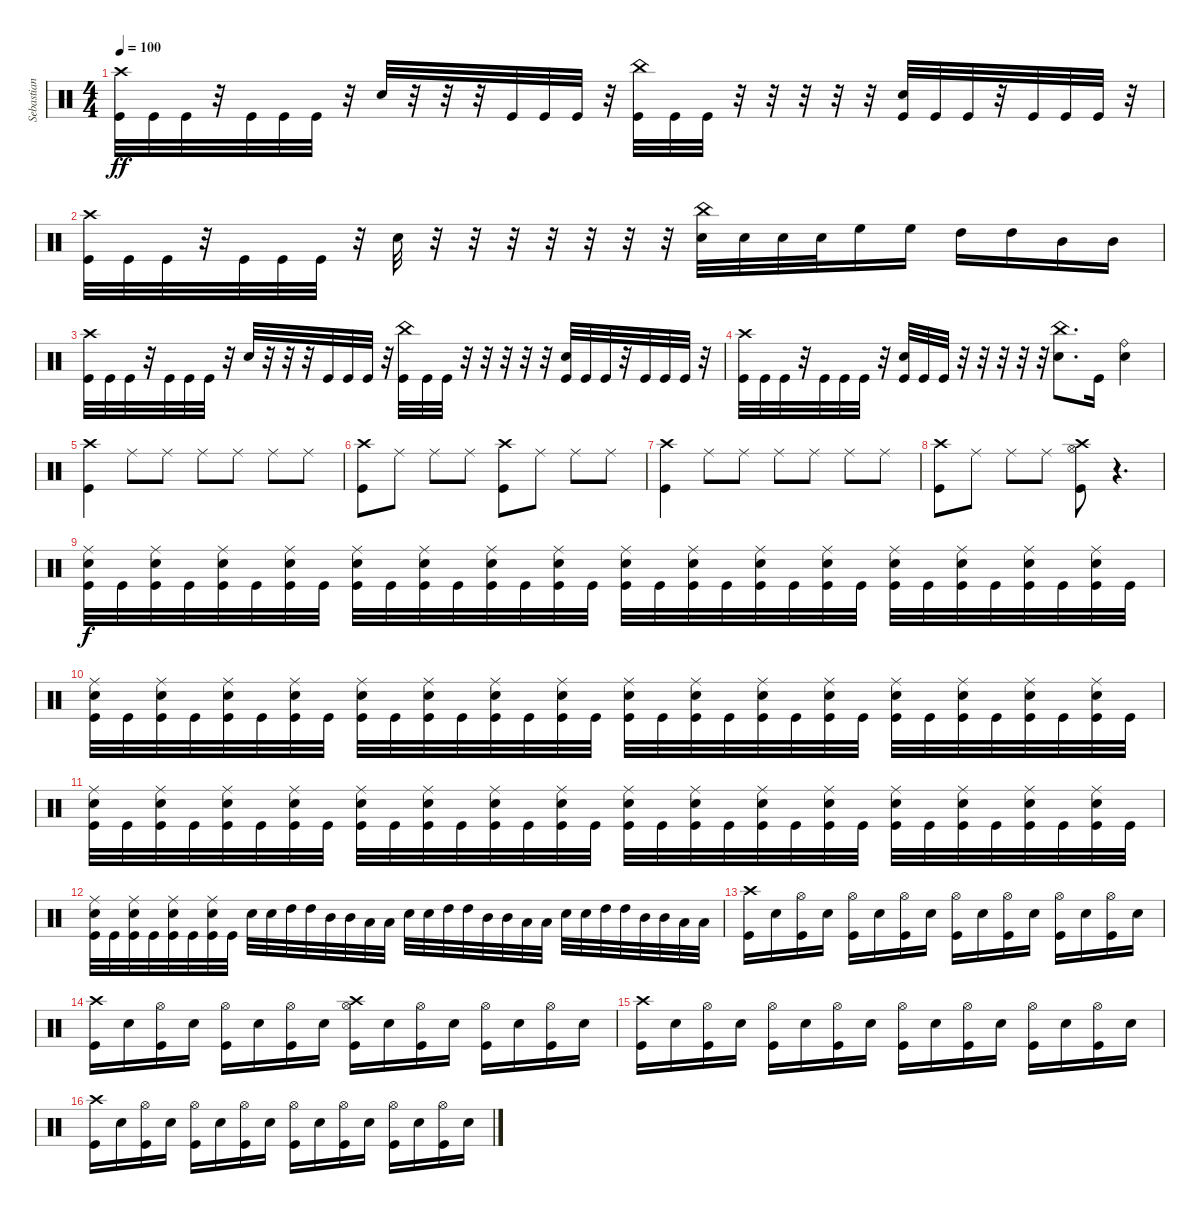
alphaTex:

\track ("Sebastian Heldt" "Sebastian ") {instrument percussion bank 177}
\staff {score}
\articulation defaults
\ts (4 4)
\tempo 100
\clef neutral
\ks c
("Kick (hit)" "Crash high (hit)").32{dy ff} "Kick (hit)".32 "Kick (hit)".32 r.32 "Kick (hit)".32 "Kick (hit)".32 "Kick (hit)".32 r.32 "Snare (hit) 2".32 r.32 r.32 r.32 "Kick (hit)".32 "Kick (hit)".32 "Kick (hit)".32 r.32 ("Kick (hit)" "China (hit)").32 "Kick (hit)".32 "Kick (hit)".32 r.32 r.32 r.32 r.32 r.32 ("Kick (hit)" "Snare (hit) 2").32 "Kick (hit)".32 "Kick (hit)".32 r.32 "Kick (hit)".32 "Kick (hit)".32 "Kick (hit)".32 r.32 |
("Kick (hit)" "Crash high (hit)").32 "Kick (hit)".32 "Kick (hit)".32 r.32 "Kick (hit)".32 "Kick (hit)".32 "Kick (hit)".32 r.32 "Snare (hit) 2".32 r.32 r.32 r.32 r.32 r.32 r.32 r.32 ("Snare (hit) 2" "China (hit)").32 "Snare (hit) 2".32 "Snare (hit) 2".32 "Snare (hit) 2".32 "High Floor Tom (hit)".16 "High Floor Tom (hit)".16 "High Tom (hit)".16 "High Tom (hit)".16 "Mid Tom (hit)".16 "Mid Tom (hit)".16 |
("Kick (hit)" "Crash high (hit)").32 "Kick (hit)".32 "Kick (hit)".32 r.32 "Kick (hit)".32 "Kick (hit)".32 "Kick (hit)".32 r.32 "Snare (hit) 2".32 r.32 r.32 r.32 "Kick (hit)".32 "Kick (hit)".32 "Kick (hit)".32 r.32 ("Kick (hit)" "China (hit)").32 "Kick (hit)".32 "Kick (hit)".32 r.32 r.32 r.32 r.32 r.32 ("Kick (hit)" "Snare (hit) 2").32 "Kick (hit)".32 "Kick (hit)".32 r.32 "Kick (hit)".32 "Kick (hit)".32 "Kick (hit)".32 r.32 |
("Kick (hit)" "Crash high (hit)").32 "Kick (hit)".32 "Kick (hit)".32 r.32 "Kick (hit)".32 "Kick (hit)".32 "Kick (hit)".32 r.32 ("Kick (hit)" "Snare (hit) 2").32 "Kick (hit)".32 "Kick (hit)".32 r.32 r.32 r.32 r.32 r.32 ("Snare (hit) 2" "China (hit)").8{d} "Kick (hit)".16 ("Ride (bell)" "Snare (hit) 2").4 |
("Kick (hit)" "Crash high (hit)").4 "Ride (middle)".8 "Ride (middle)".8 "Ride (middle)".8 "Ride (middle)".8 "Ride (middle)".8 "Ride (middle)".8 |
("Kick (hit)" "Crash high (hit)").8 "Ride (middle)".8 "Ride (middle)".8 "Ride (middle)".8 ("Kick (hit)" "Crash high (hit)").8 "Ride (middle)".8 "Ride (middle)".8 "Ride (middle)".8 |
("Kick (hit)" "Crash high (hit)").4 "Ride (middle)".8 "Ride (middle)".8 "Ride (middle)".8 "Ride (middle)".8 "Ride (middle)".8 "Ride (middle)".8 |
("Kick (hit)" "Crash high (hit)").8 "Ride (middle)".8 "Ride (middle)".8 "Ride (middle)".8 ("Kick (hit)" "Hi-Hat (open)" "Crash high (hit)").8 r.4{d} |
("Snare (hit) 2" "Kick (hit)" "Ride (middle)").32{dy f} "Kick (hit)".32 ("Snare (hit) 2" "Kick (hit)" "Ride (middle)").32 "Kick (hit)".32 ("Snare (hit) 2" "Kick (hit)" "Ride (middle)").32 "Kick (hit)".32 ("Snare (hit) 2" "Kick (hit)" "Ride (middle)").32 "Kick (hit)".32 ("Snare (hit) 2" "Kick (hit)" "Ride (middle)").32 "Kick (hit)".32 ("Snare (hit) 2" "Kick (hit)" "Ride (middle)").32 "Kick (hit)".32 ("Snare (hit) 2" "Kick (hit)" "Ride (middle)").32 "Kick (hit)".32 ("Snare (hit) 2" "Kick (hit)" "Ride (middle)").32 "Kick (hit)".32 ("Snare (hit) 2" "Kick (hit)" "Ride (middle)").32 "Kick (hit)".32 ("Snare (hit) 2" "Kick (hit)" "Ride (middle)").32 "Kick (hit)".32 ("Snare (hit) 2" "Kick (hit)" "Ride (middle)").32 "Kick (hit)".32 ("Snare (hit) 2" "Kick (hit)" "Ride (middle)").32 "Kick (hit)".32 ("Snare (hit) 2" "Kick (hit)" "Ride (middle)").32 "Kick (hit)".32 ("Snare (hit) 2" "Kick (hit)" "Ride (middle)").32 "Kick (hit)".32 ("Snare (hit) 2" "Kick (hit)" "Ride (middle)").32 "Kick (hit)".32 ("Snare (hit) 2" "Kick (hit)" "Ride (middle)").32 "Kick (hit)".32 |
("Snare (hit) 2" "Kick (hit)" "Ride (middle)").32 "Kick (hit)".32 ("Snare (hit) 2" "Kick (hit)" "Ride (middle)").32 "Kick (hit)".32 ("Snare (hit) 2" "Kick (hit)" "Ride (middle)").32 "Kick (hit)".32 ("Snare (hit) 2" "Kick (hit)" "Ride (middle)").32 "Kick (hit)".32 ("Snare (hit) 2" "Kick (hit)" "Ride (middle)").32 "Kick (hit)".32 ("Snare (hit) 2" "Kick (hit)" "Ride (middle)").32 "Kick (hit)".32 ("Snare (hit) 2" "Kick (hit)" "Ride (middle)").32 "Kick (hit)".32 ("Snare (hit) 2" "Kick (hit)" "Ride (middle)").32 "Kick (hit)".32 ("Snare (hit) 2" "Kick (hit)" "Ride (middle)").32 "Kick (hit)".32 ("Snare (hit) 2" "Kick (hit)" "Ride (middle)").32 "Kick (hit)".32 ("Snare (hit) 2" "Kick (hit)" "Ride (middle)").32 "Kick (hit)".32 ("Snare (hit) 2" "Kick (hit)" "Ride (middle)").32 "Kick (hit)".32 ("Snare (hit) 2" "Kick (hit)" "Ride (middle)").32 "Kick (hit)".32 ("Snare (hit) 2" "Kick (hit)" "Ride (middle)").32 "Kick (hit)".32 ("Snare (hit) 2" "Kick (hit)" "Ride (middle)").32 "Kick (hit)".32 ("Snare (hit) 2" "Kick (hit)" "Ride (middle)").32 "Kick (hit)".32 |
("Snare (hit) 2" "Kick (hit)" "Ride (middle)").32 "Kick (hit)".32 ("Snare (hit) 2" "Kick (hit)" "Ride (middle)").32 "Kick (hit)".32 ("Snare (hit) 2" "Kick (hit)" "Ride (middle)").32 "Kick (hit)".32 ("Snare (hit) 2" "Kick (hit)" "Ride (middle)").32 "Kick (hit)".32 ("Snare (hit) 2" "Kick (hit)" "Ride (middle)").32 "Kick (hit)".32 ("Snare (hit) 2" "Kick (hit)" "Ride (middle)").32 "Kick (hit)".32 ("Snare (hit) 2" "Kick (hit)" "Ride (middle)").32 "Kick (hit)".32 ("Snare (hit) 2" "Kick (hit)" "Ride (middle)").32 "Kick (hit)".32 ("Snare (hit) 2" "Kick (hit)" "Ride (middle)").32 "Kick (hit)".32 ("Snare (hit) 2" "Kick (hit)" "Ride (middle)").32 "Kick (hit)".32 ("Snare (hit) 2" "Kick (hit)" "Ride (middle)").32 "Kick (hit)".32 ("Snare (hit) 2" "Kick (hit)" "Ride (middle)").32 "Kick (hit)".32 ("Snare (hit) 2" "Kick (hit)" "Ride (middle)").32 "Kick (hit)".32 ("Snare (hit) 2" "Kick (hit)" "Ride (middle)").32 "Kick (hit)".32 ("Snare (hit) 2" "Kick (hit)" "Ride (middle)").32 "Kick (hit)".32 ("Snare (hit) 2" "Kick (hit)" "Ride (middle)").32 "Kick (hit)".32 |
("Snare (hit) 2" "Kick (hit)" "Ride (middle)").32 "Kick (hit)".32 ("Snare (hit) 2" "Kick (hit)" "Ride (middle)").32 "Kick (hit)".32 ("Snare (hit) 2" "Kick (hit)" "Ride (middle)").32 "Kick (hit)".32 ("Snare (hit) 2" "Kick (hit)" "Ride (middle)").32 "Kick (hit)".32 "Snare (hit) 2".32 "Snare (hit) 2".32 "High Tom (hit)".32 "High Tom (hit)".32 "Mid Tom (hit)".32 "Mid Tom (hit)".32 "Low Tom (hit)".32 "Low Tom (hit)".32 "Snare (hit) 2".32 "Snare (hit) 2".32 "High Tom (hit)".32 "High Tom (hit)".32 "Mid Tom (hit)".32 "Mid Tom (hit)".32 "Low Tom (hit)".32 "Low Tom (hit)".32 "Snare (hit) 2".32 "Snare (hit) 2".32 "High Tom (hit)".32 "High Tom (hit)".32 "Mid Tom (hit)".32 "Mid Tom (hit)".32 "Low Tom (hit)".32 "Low Tom (hit)".32 |
("Kick (hit)" "Crash high (hit)").16 "Snare (hit) 2".16 ("Kick (hit)" "Hi-Hat (open)").16 "Snare (hit) 2".16 ("Kick (hit)" "Hi-Hat (open)").16 "Snare (hit) 2".16 ("Kick (hit)" "Hi-Hat (open)").16 "Snare (hit) 2".16 ("Kick (hit)" "Hi-Hat (open)").16 "Snare (hit) 2".16 ("Kick (hit)" "Hi-Hat (open)").16 "Snare (hit) 2".16 ("Kick (hit)" "Hi-Hat (open)").16 "Snare (hit) 2".16 ("Kick (hit)" "Hi-Hat (open)").16 "Snare (hit) 2".16 |
("Kick (hit)" "Crash high (hit)").16 "Snare (hit) 2".16 ("Kick (hit)" "Hi-Hat (open)").16 "Snare (hit) 2".16 ("Kick (hit)" "Hi-Hat (open)").16 "Snare (hit) 2".16 ("Kick (hit)" "Hi-Hat (open)").16 "Snare (hit) 2".16 ("Kick (hit)" "Hi-Hat (open)" "Crash high (hit)").16 "Snare (hit) 2".16 ("Kick (hit)" "Hi-Hat (open)").16 "Snare (hit) 2".16 ("Kick (hit)" "Hi-Hat (open)").16 "Snare (hit) 2".16 ("Kick (hit)" "Hi-Hat (open)").16 "Snare (hit) 2".16 |
("Kick (hit)" "Crash high (hit)").16 "Snare (hit) 2".16 ("Kick (hit)" "Hi-Hat (open)").16 "Snare (hit) 2".16 ("Kick (hit)" "Hi-Hat (open)").16 "Snare (hit) 2".16 ("Kick (hit)" "Hi-Hat (open)").16 "Snare (hit) 2".16 ("Kick (hit)" "Hi-Hat (open)").16 "Snare (hit) 2".16 ("Kick (hit)" "Hi-Hat (open)").16 "Snare (hit) 2".16 ("Kick (hit)" "Hi-Hat (open)").16 "Snare (hit) 2".16 ("Kick (hit)" "Hi-Hat (open)").16 "Snare (hit) 2".16 |
("Kick (hit)" "Crash high (hit)").16 "Snare (hit) 2".16 ("Kick (hit)" "Hi-Hat (open)").16 "Snare (hit) 2".16 ("Kick (hit)" "Hi-Hat (open)").16 "Snare (hit) 2".16 ("Kick (hit)" "Hi-Hat (open)").16 "Snare (hit) 2".16 ("Kick (hit)" "Hi-Hat (open)").16 "Snare (hit) 2".16 ("Kick (hit)" "Hi-Hat (open)").16 "Snare (hit) 2".16 ("Kick (hit)" "Hi-Hat (open)").16 "Snare (hit) 2".16 ("Kick (hit)" "Hi-Hat (open)").16 "Snare (hit) 2".16
